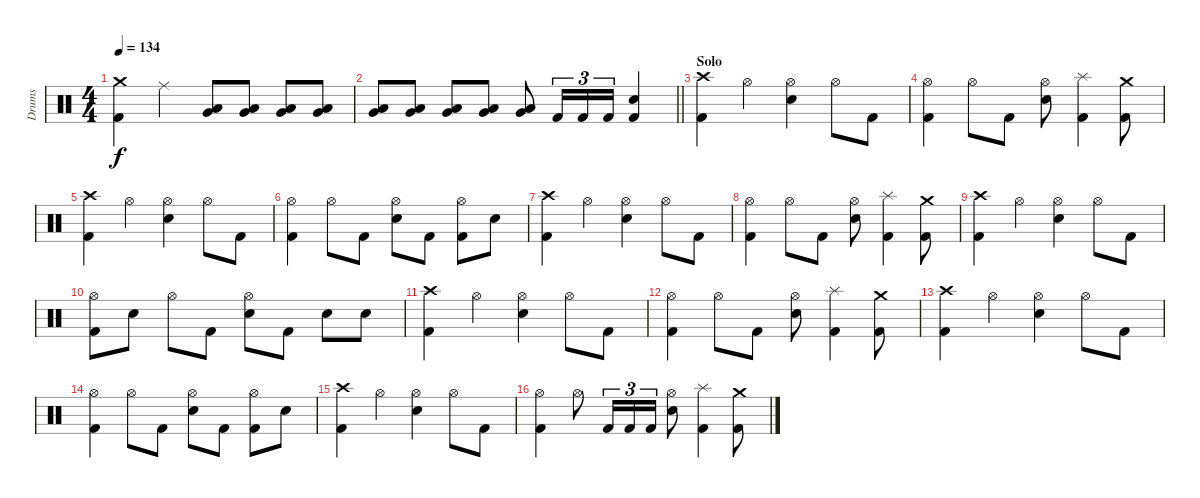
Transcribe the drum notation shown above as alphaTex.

\track ("Drums" "Drums") {instrument percussion}
\staff {score}
\articulation defaults
\ts (4 4)
\tempo 134
\clef neutral
\ks c
("Crash medium (hit)" "Kick (hit) 2").4{dy f} "Ride (middle)".4 ("Low Floor Tom (hit)" "Very Low Tom (hit)").8 ("Low Floor Tom (hit)" "Very Low Tom (hit)").8 ("Low Floor Tom (hit)" "Very Low Tom (hit)").8 ("Low Floor Tom (hit)" "Very Low Tom (hit)").8 |
\barLineRight lightlight
("Low Floor Tom (hit)" "Very Low Tom (hit)").8 ("Low Floor Tom (hit)" "Very Low Tom (hit)").8 ("Low Floor Tom (hit)" "Very Low Tom (hit)").8 ("Low Floor Tom (hit)" "Very Low Tom (hit)").8 ("Low Floor Tom (hit)" "Very Low Tom (hit)").8 "Kick (hit) 2".16{tu (3 2)} "Kick (hit) 2".16{tu (3 2)} "Kick (hit) 2".16{tu (3 2)} ("Electric Snare (hit)" "Kick (hit) 2").4 |
\section ("" "Solo")
("Crash high (hit)" "Kick (hit) 2").4 "Hi-Hat (open)".4 ("Hi-Hat (open)" "Electric Snare (hit)").4 "Hi-Hat (open)".8 "Kick (hit) 2".8 |
("Hi-Hat (open)" "Kick (hit) 2").4 "Hi-Hat (open)".8 "Kick (hit) 2".8 ("Hi-Hat (open)" "Electric Snare (hit)").8 ("Splash (hit)" "Kick (hit) 2").4 ("Crash medium (hit)" "Kick (hit) 2").8 |
("Crash high (hit)" "Kick (hit) 2").4 "Hi-Hat (open)".4 ("Hi-Hat (open)" "Electric Snare (hit)").4 "Hi-Hat (open)".8 "Kick (hit) 2".8 |
("Hi-Hat (open)" "Kick (hit) 2").4 "Hi-Hat (open)".8 "Kick (hit) 2".8 ("Hi-Hat (open)" "Electric Snare (hit)").8 "Kick (hit) 2".8 ("Hi-Hat (open)" "Kick (hit) 2").8 "Electric Snare (hit)".8 |
("Crash high (hit)" "Kick (hit) 2").4 "Hi-Hat (open)".4 ("Hi-Hat (open)" "Electric Snare (hit)").4 "Hi-Hat (open)".8 "Kick (hit) 2".8 |
("Hi-Hat (open)" "Kick (hit) 2").4 "Hi-Hat (open)".8 "Kick (hit) 2".8 ("Hi-Hat (open)" "Electric Snare (hit)").8 ("Splash (hit)" "Kick (hit) 2").4 ("Crash medium (hit)" "Kick (hit) 2").8 |
("Crash high (hit)" "Kick (hit) 2").4 "Hi-Hat (open)".4 ("Hi-Hat (open)" "Electric Snare (hit)").4 "Hi-Hat (open)".8 "Kick (hit) 2".8 |
("Hi-Hat (open)" "Kick (hit) 2").8 "Electric Snare (hit)".8 "Hi-Hat (open)".8 "Kick (hit) 2".8 ("Hi-Hat (open)" "Electric Snare (hit)").8 "Kick (hit) 2".8 "Electric Snare (hit)".8 "Electric Snare (hit)".8 |
("Crash high (hit)" "Kick (hit) 2").4 "Hi-Hat (open)".4 ("Hi-Hat (open)" "Electric Snare (hit)").4 "Hi-Hat (open)".8 "Kick (hit) 2".8 |
("Hi-Hat (open)" "Kick (hit) 2").4 "Hi-Hat (open)".8 "Kick (hit) 2".8 ("Hi-Hat (open)" "Electric Snare (hit)").8 ("Splash (hit)" "Kick (hit) 2").4 ("Crash medium (hit)" "Kick (hit) 2").8 |
("Crash high (hit)" "Kick (hit) 2").4 "Hi-Hat (open)".4 ("Hi-Hat (open)" "Electric Snare (hit)").4 "Hi-Hat (open)".8 "Kick (hit) 2".8 |
("Hi-Hat (open)" "Kick (hit) 2").4 "Hi-Hat (open)".8 "Kick (hit) 2".8 ("Hi-Hat (open)" "Electric Snare (hit)").8 "Kick (hit) 2".8 ("Hi-Hat (open)" "Kick (hit) 2").8 "Electric Snare (hit)".8 |
("Crash high (hit)" "Kick (hit) 2").4 "Hi-Hat (open)".4 ("Hi-Hat (open)" "Electric Snare (hit)").4 "Hi-Hat (open)".8 "Kick (hit) 2".8 |
("Hi-Hat (open)" "Kick (hit) 2").4 "Hi-Hat (open)".8 "Kick (hit) 2".16{tu (3 2)} "Kick (hit) 2".16{tu (3 2)} "Kick (hit) 2".16{tu (3 2)} ("Hi-Hat (open)" "Electric Snare (hit)").8 ("Splash (hit)" "Kick (hit) 2").4 ("Crash medium (hit)" "Kick (hit) 2").8
